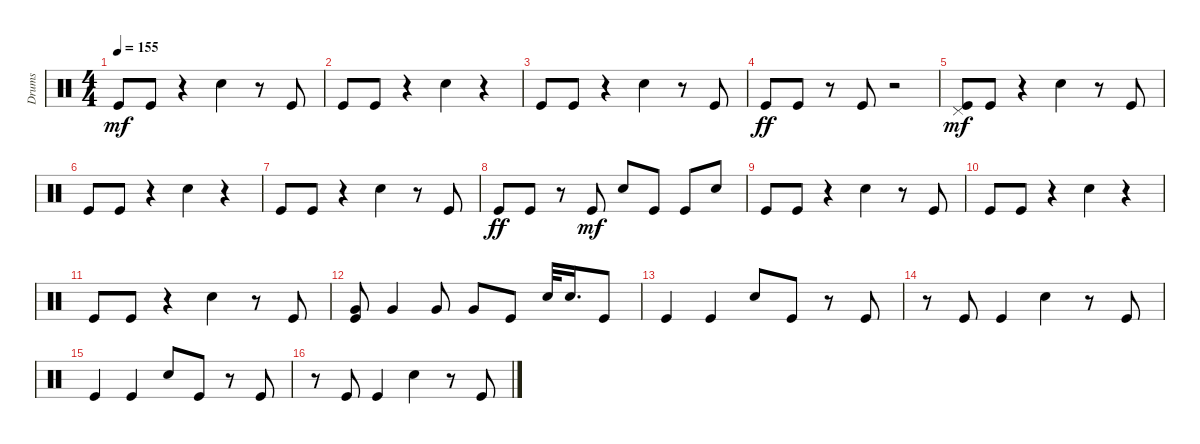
\track ("Drums" "Drums") {instrument percussion}
\staff {score}
\articulation defaults
\ts (4 4)
\tempo 155
\clef neutral
\ks c "Kick (hit)".8{dy mf} "Kick (hit)".8
r.4 "Snare (hit) 2".4 r.8 "Kick (hit)".8 |
"Kick (hit)".8 "Kick (hit)".8 r.4 "Snare (hit) 2".4 r.4 |
"Kick (hit)".8 "Kick (hit)".8 r.4 "Snare (hit) 2".4 r.8 "Kick (hit)".8 |
"Kick (hit)".8{dy ff} "Kick (hit)".8 r.8 "Kick (hit)".8 r.2 |
("Kick (hit)" "Pedal Hi-Hat (hit)").8{dy mf} "Kick (hit)".8 r.4 "Snare (hit) 2".4 r.8 "Kick (hit)".8 |
"Kick (hit)".8 "Kick (hit)".8 r.4 "Snare (hit) 2".4 r.4 |
"Kick (hit)".8 "Kick (hit)".8 r.4 "Snare (hit) 2".4 r.8 "Kick (hit)".8 |
"Kick (hit)".8{dy ff} "Kick (hit)".8 r.8 "Kick (hit)".8{dy mf} "Snare (hit) 2".8 "Kick (hit)".8 "Kick (hit)".8 "Snare (hit) 2".8 |
"Kick (hit)".8 "Kick (hit)".8 r.4 "Snare (hit) 2".4 r.8 "Kick (hit)".8 |
"Kick (hit)".8 "Kick (hit)".8 r.4 "Snare (hit) 2".4 r.4 |
"Kick (hit)".8 "Kick (hit)".8 r.4 "Snare (hit) 2".4 r.8 "Kick (hit)".8 |
("Very Low Tom (hit)" "Kick (hit)").8 "Very Low Tom (hit)".4 "Very Low Tom (hit)".8 "Very Low Tom (hit)".8 "Kick (hit)".8 "Snare (hit) 2".32 "Snare (hit) 2".16{d} "Kick (hit)".8 |
"Kick (hit)".4 "Kick (hit)".4 "Snare (hit) 2".8 "Kick (hit)".8 r.8 "Kick (hit)".8 |
r.8 "Kick (hit)".8 "Kick (hit)".4 "Snare (hit) 2".4 r.8 "Kick (hit)".8 |
"Kick (hit)".4 "Kick (hit)".4 "Snare (hit) 2".8 "Kick (hit)".8 r.8 "Kick (hit)".8 |
r.8 "Kick (hit)".8 "Kick (hit)".4 "Snare (hit) 2".4 r.8 "Kick (hit)".8
